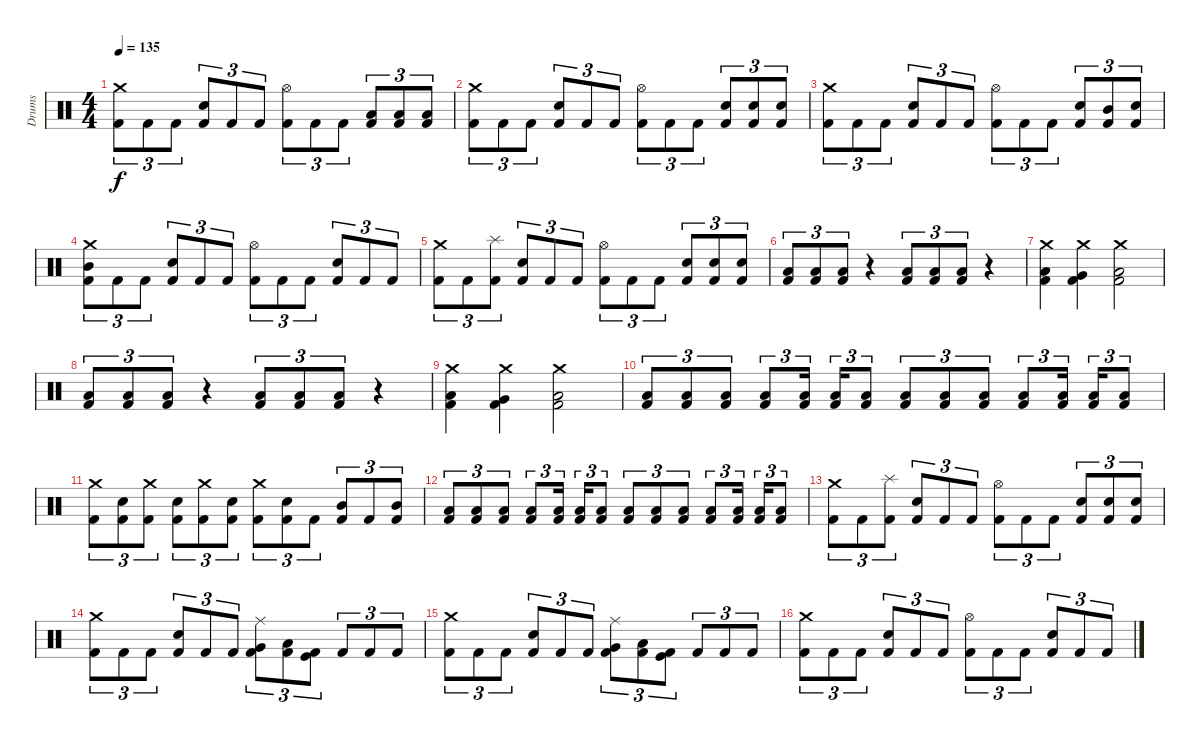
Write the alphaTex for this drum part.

\track ("Drums" "Drums") {instrument percussion}
\staff {score}
\articulation defaults
\ts (4 4)
\tempo 135
\clef neutral
\ks c
("Crash medium (hit)" "Kick (hit) 2").8{tu (3 2) dy f} "Kick (hit) 2".8{tu (3 2)} "Kick (hit) 2".8{tu (3 2)} ("Snare (hit) 2" "Kick (hit) 2").8{tu (3 2)} "Kick (hit) 2".8{tu (3 2)} "Kick (hit) 2".8{tu (3 2)} ("Hi-Hat (open)" "Kick (hit) 2").8{tu (3 2)} "Kick (hit) 2".8{tu (3 2)} "Kick (hit) 2".8{tu (3 2)} ("Low Floor Tom (hit)" "Kick (hit) 2").8{tu (3 2)} ("Low Floor Tom (hit)" "Kick (hit) 2").8{tu (3 2)} ("Low Floor Tom (hit)" "Kick (hit) 2").8{tu (3 2)} |
("Crash medium (hit)" "Kick (hit) 2").8{tu (3 2)} "Kick (hit) 2".8{tu (3 2)} "Kick (hit) 2".8{tu (3 2)} ("Snare (hit) 2" "Kick (hit) 2").8{tu (3 2)} "Kick (hit) 2".8{tu (3 2)} "Kick (hit) 2".8{tu (3 2)} ("Hi-Hat (open)" "Kick (hit) 2").8{tu (3 2)} "Kick (hit) 2".8{tu (3 2)} "Kick (hit) 2".8{tu (3 2)} ("Snare (hit) 2" "Kick (hit) 2").8{tu (3 2)} ("Snare (hit) 2" "Kick (hit) 2").8{tu (3 2)} ("Snare (hit) 2" "Kick (hit) 2").8{tu (3 2)} |
("Crash medium (hit)" "Kick (hit) 2").8{tu (3 2)} "Kick (hit) 2".8{tu (3 2)} "Kick (hit) 2".8{tu (3 2)} ("Snare (hit) 2" "Kick (hit) 2").8{tu (3 2)} "Kick (hit) 2".8{tu (3 2)} "Kick (hit) 2".8{tu (3 2)} ("Hi-Hat (open)" "Kick (hit) 2").8{tu (3 2)} "Kick (hit) 2".8{tu (3 2)} "Kick (hit) 2".8{tu (3 2)} ("Snare (hit) 2" "Kick (hit) 2").8{tu (3 2)} ("Mid Tom (hit)" "Kick (hit) 2").8{tu (3 2)} ("Snare (hit) 2" "Kick (hit) 2").8{tu (3 2)} |
("Crash medium (hit)" "Mid Tom (hit)" "Kick (hit) 2").8{tu (3 2)} "Kick (hit) 2".8{tu (3 2)} "Kick (hit) 2".8{tu (3 2)} ("Snare (hit) 2" "Kick (hit) 2").8{tu (3 2)} "Kick (hit) 2".8{tu (3 2)} "Kick (hit) 2".8{tu (3 2)} ("Hi-Hat (open)" "Kick (hit) 2").8{tu (3 2)} "Kick (hit) 2".8{tu (3 2)} "Kick (hit) 2".8{tu (3 2)} ("Snare (hit) 2" "Kick (hit) 2").8{tu (3 2)} "Kick (hit) 2".8{tu (3 2)} "Kick (hit) 2".8{tu (3 2)} |
("Crash medium (hit)" "Kick (hit) 2").8{tu (3 2)} "Kick (hit) 2".8{tu (3 2)} ("Splash (hit)" "Kick (hit) 2").8{tu (3 2)} ("Snare (hit) 2" "Kick (hit) 2").8{tu (3 2)} "Kick (hit) 2".8{tu (3 2)} "Kick (hit) 2".8{tu (3 2)} ("Hi-Hat (open)" "Kick (hit) 2").8{tu (3 2)} "Kick (hit) 2".8{tu (3 2)} "Kick (hit) 2".8{tu (3 2)} ("Snare (hit) 2" "Kick (hit) 2").8{tu (3 2)} ("Snare (hit) 2" "Kick (hit) 2").8{tu (3 2)} ("Snare (hit) 2" "Kick (hit) 2").8{tu (3 2)} |
("Low Floor Tom (hit)" "Kick (hit) 2").8{tu (3 2)} ("Low Floor Tom (hit)" "Kick (hit) 2").8{tu (3 2)} ("Low Floor Tom (hit)" "Kick (hit) 2").8{tu (3 2)} r.4 ("Low Floor Tom (hit)" "Kick (hit) 2").8{tu (3 2)} ("Low Floor Tom (hit)" "Kick (hit) 2").8{tu (3 2)} ("Low Floor Tom (hit)" "Kick (hit) 2").8{tu (3 2)} r.4 |
("Crash medium (hit)" "Low Floor Tom (hit)" "Kick (hit) 2").4 ("Crash medium (hit)" "Very Low Tom (hit)" "Kick (hit) 2").4 ("Crash medium (hit)" "Low Tom (hit)" "Kick (hit) 2").2 |
("Low Floor Tom (hit)" "Kick (hit) 2").8{tu (3 2)} ("Low Floor Tom (hit)" "Kick (hit) 2").8{tu (3 2)} ("Low Floor Tom (hit)" "Kick (hit) 2").8{tu (3 2)} r.4 ("Low Floor Tom (hit)" "Kick (hit) 2").8{tu (3 2)} ("Low Floor Tom (hit)" "Kick (hit) 2").8{tu (3 2)} ("Low Floor Tom (hit)" "Kick (hit) 2").8{tu (3 2)} r.4 |
("Crash medium (hit)" "Low Floor Tom (hit)" "Kick (hit) 2").4 ("Crash medium (hit)" "Very Low Tom (hit)" "Kick (hit) 2").4 ("Crash medium (hit)" "Low Tom (hit)" "Kick (hit) 2").2 |
("Low Floor Tom (hit)" "Kick (hit) 2").8{tu (3 2)} ("Low Floor Tom (hit)" "Kick (hit) 2").8{tu (3 2)} ("Low Floor Tom (hit)" "Kick (hit) 2").8{tu (3 2)} ("Low Floor Tom (hit)" "Kick (hit) 2").8{tu (3 2)} ("Low Floor Tom (hit)" "Kick (hit) 2").16{tu (3 2)} ("Low Floor Tom (hit)" "Kick (hit) 2").16{tu (3 2)} ("Low Floor Tom (hit)" "Kick (hit) 2").8{tu (3 2)} ("Low Floor Tom (hit)" "Kick (hit) 2").8{tu (3 2)} ("Low Floor Tom (hit)" "Kick (hit) 2").8{tu (3 2)} ("Low Floor Tom (hit)" "Kick (hit) 2").8{tu (3 2)} ("Low Floor Tom (hit)" "Kick (hit) 2").8{tu (3 2)} ("Low Floor Tom (hit)" "Kick (hit) 2").16{tu (3 2)} ("Low Floor Tom (hit)" "Kick (hit) 2").16{tu (3 2)} ("Low Floor Tom (hit)" "Kick (hit) 2").8{tu (3 2)} |
("Crash medium (hit)" "Kick (hit) 2").8{tu (3 2)} ("Electric Snare (hit)" "Kick (hit) 2").8{tu (3 2)} ("Crash medium (hit)" "Kick (hit) 2").8{tu (3 2)} ("Electric Snare (hit)" "Kick (hit) 2").8{tu (3 2)} ("Crash medium (hit)" "Kick (hit) 2").8{tu (3 2)} ("Snare (hit) 2" "Kick (hit) 2").8{tu (3 2)} ("Crash medium (hit)" "Kick (hit) 2").8{tu (3 2)} ("Snare (hit) 2" "Kick (hit) 2").8{tu (3 2)} "Kick (hit) 2".8{tu (3 2)} ("Mid Tom (hit)" "Kick (hit) 2").8{tu (3 2)} "Kick (hit) 2".8{tu (3 2)} ("Mid Tom (hit)" "Kick (hit) 2").8{tu (3 2)} |
("Low Floor Tom (hit)" "Kick (hit) 2").8{tu (3 2)} ("Low Floor Tom (hit)" "Kick (hit) 2").8{tu (3 2)} ("Low Floor Tom (hit)" "Kick (hit) 2").8{tu (3 2)} ("Low Floor Tom (hit)" "Kick (hit) 2").8{tu (3 2)} ("Low Floor Tom (hit)" "Kick (hit) 2").16{tu (3 2)} ("Low Floor Tom (hit)" "Kick (hit) 2").16{tu (3 2)} ("Low Floor Tom (hit)" "Kick (hit) 2").8{tu (3 2)} ("Low Floor Tom (hit)" "Kick (hit) 2").8{tu (3 2)} ("Low Floor Tom (hit)" "Kick (hit) 2").8{tu (3 2)} ("Low Floor Tom (hit)" "Kick (hit) 2").8{tu (3 2)} ("Low Floor Tom (hit)" "Kick (hit) 2").8{tu (3 2)} ("Low Floor Tom (hit)" "Kick (hit) 2").16{tu (3 2)} ("Low Floor Tom (hit)" "Kick (hit) 2").16{tu (3 2)} ("Low Floor Tom (hit)" "Kick (hit) 2").8{tu (3 2)} |
("Crash medium (hit)" "Kick (hit) 2").8{tu (3 2)} "Kick (hit) 2".8{tu (3 2)} ("Splash (hit)" "Kick (hit) 2").8{tu (3 2)} ("Snare (hit) 2" "Kick (hit) 2").8{tu (3 2)} "Kick (hit) 2".8{tu (3 2)} "Kick (hit) 2".8{tu (3 2)} ("Hi-Hat (open)" "Kick (hit) 2").8{tu (3 2)} "Kick (hit) 2".8{tu (3 2)} "Kick (hit) 2".8{tu (3 2)} ("Snare (hit) 2" "Kick (hit) 2").8{tu (3 2)} ("Snare (hit) 2" "Kick (hit) 2").8{tu (3 2)} ("Snare (hit) 2" "Kick (hit) 2").8{tu (3 2)} |
("Crash medium (hit)" "Kick (hit) 2").8{tu (3 2)} "Kick (hit) 2".8{tu (3 2)} "Kick (hit) 2".8{tu (3 2)} ("Snare (hit) 2" "Kick (hit) 2").8{tu (3 2)} "Kick (hit) 2".8{tu (3 2)} "Kick (hit) 2".8{tu (3 2)} ("Ride (middle)" "Very Low Tom (hit)" "Kick (hit) 2").8{tu (3 2)} ("Low Floor Tom (hit)" "Kick (hit) 2").8{tu (3 2)} ("Kick (hit)" "Kick (hit) 2").8{tu (3 2)} "Kick (hit) 2".8{tu (3 2)} "Kick (hit) 2".8{tu (3 2)} "Kick (hit) 2".8{tu (3 2)} |
("Crash medium (hit)" "Kick (hit) 2").8{tu (3 2)} "Kick (hit) 2".8{tu (3 2)} "Kick (hit) 2".8{tu (3 2)} ("Snare (hit) 2" "Kick (hit) 2").8{tu (3 2)} "Kick (hit) 2".8{tu (3 2)} "Kick (hit) 2".8{tu (3 2)} ("Ride (middle)" "Very Low Tom (hit)" "Kick (hit) 2").8{tu (3 2)} ("Low Floor Tom (hit)" "Kick (hit) 2").8{tu (3 2)} ("Kick (hit)" "Kick (hit) 2").8{tu (3 2)} "Kick (hit) 2".8{tu (3 2)} "Kick (hit) 2".8{tu (3 2)} "Kick (hit) 2".8{tu (3 2)} |
("Crash medium (hit)" "Kick (hit) 2").8{tu (3 2)} "Kick (hit) 2".8{tu (3 2)} "Kick (hit) 2".8{tu (3 2)} ("Snare (hit) 2" "Kick (hit) 2").8{tu (3 2)} "Kick (hit) 2".8{tu (3 2)} "Kick (hit) 2".8{tu (3 2)} ("Hi-Hat (open)" "Kick (hit) 2").8{tu (3 2)} "Kick (hit) 2".8{tu (3 2)} "Kick (hit) 2".8{tu (3 2)} ("Snare (hit) 2" "Kick (hit) 2").8{tu (3 2)} "Kick (hit) 2".8{tu (3 2)} "Kick (hit) 2".8{tu (3 2)}
